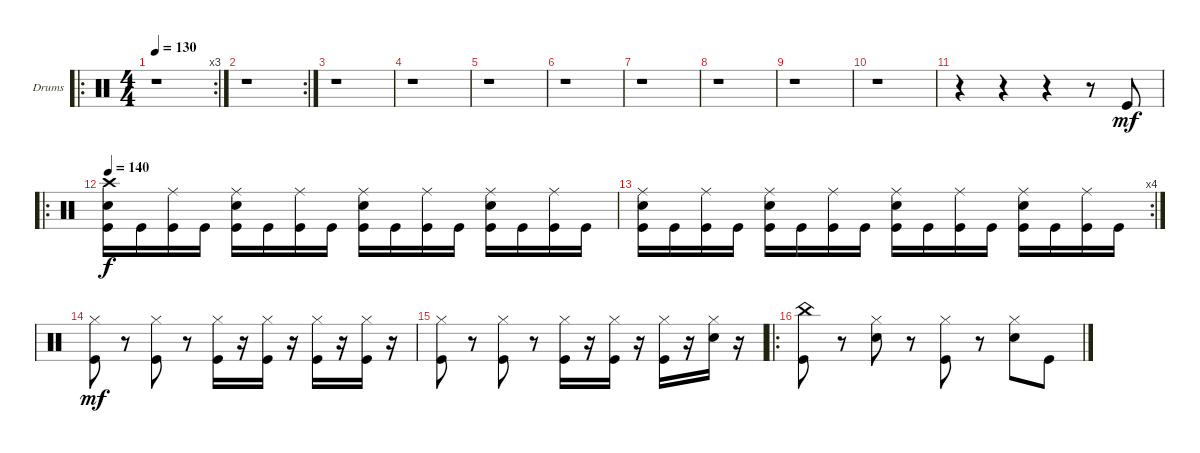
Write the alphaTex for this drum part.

\bracketExtendMode groupsimilarinstruments
\firstSystemTrackNameOrientation horizontal
\otherSystemsTrackNameOrientation horizontal
\track ("Drums" "Drums") {instrument percussion}
\staff {score}
\articulation defaults
\ro
\rc 3
\ts (4 4)
\tempo 130
\clef neutral
\ks c
r.1{dy mf} |
\rc 2
r.1 |
r.1 |
r.1 |
r.1 |
r.1 |
r.1 |
r.1 |
r.1 |
r.1 |
r.4 r.4 r.4 r.8 "Kick (hit)".8 |
\ro
\tempo 140
("Snare (hit) 2" "Kick (hit)" "Crash high (hit)").16{dy f} "Kick (hit)".16 ("Ride (middle)" "Kick (hit)").16 "Kick (hit)".16 ("Ride (middle)" "Snare (hit) 2" "Kick (hit)").16 "Kick (hit)".16 ("Ride (middle)" "Kick (hit)").16 "Kick (hit)".16 ("Ride (middle)" "Snare (hit) 2" "Kick (hit)").16 "Kick (hit)".16 ("Ride (middle)" "Kick (hit)").16 "Kick (hit)".16 ("Ride (middle)" "Snare (hit) 2" "Kick (hit)").16 "Kick (hit)".16 ("Ride (middle)" "Kick (hit)").16 "Kick (hit)".16 |
\rc 4
("Ride (middle)" "Snare (hit) 2" "Kick (hit)").16 "Kick (hit)".16 ("Ride (middle)" "Kick (hit)").16 "Kick (hit)".16 ("Ride (middle)" "Snare (hit) 2" "Kick (hit)").16 "Kick (hit)".16 ("Ride (middle)" "Kick (hit)").16 "Kick (hit)".16 ("Ride (middle)" "Snare (hit) 2" "Kick (hit)").16 "Kick (hit)".16 ("Ride (middle)" "Kick (hit)").16 "Kick (hit)".16 ("Ride (middle)" "Snare (hit) 2" "Kick (hit)").16 "Kick (hit)".16 ("Ride (middle)" "Kick (hit)").16 "Kick (hit)".16 |
("Kick (hit)" "Hi-Hat (closed)").8{dy mf} r.8 ("Kick (hit)" "Hi-Hat (closed)").8 r.8 ("Kick (hit)" "Hi-Hat (closed)").16 r.16 ("Kick (hit)" "Hi-Hat (closed)").16 r.16 ("Kick (hit)" "Hi-Hat (closed)").16 r.16 ("Kick (hit)" "Hi-Hat (closed)").16 r.16 |
("Kick (hit)" "Hi-Hat (closed)").8 r.8 ("Kick (hit)" "Hi-Hat (closed)").8 r.8 ("Kick (hit)" "Hi-Hat (closed)").16 r.16 ("Kick (hit)" "Hi-Hat (closed)").16 r.16 ("Kick (hit)" "Hi-Hat (closed)").16 r.16 ("Hi-Hat (closed)" "Snare (hit) 2").16 r.16 |
\ro
("Kick (hit)" "China (hit)").8 r.8 ("Snare (hit) 2" "Hi-Hat (closed)").8 r.8 ("Kick (hit)" "Hi-Hat (closed)").8 r.8 ("Snare (hit) 2" "Hi-Hat (closed)").8 "Kick (hit)".8
